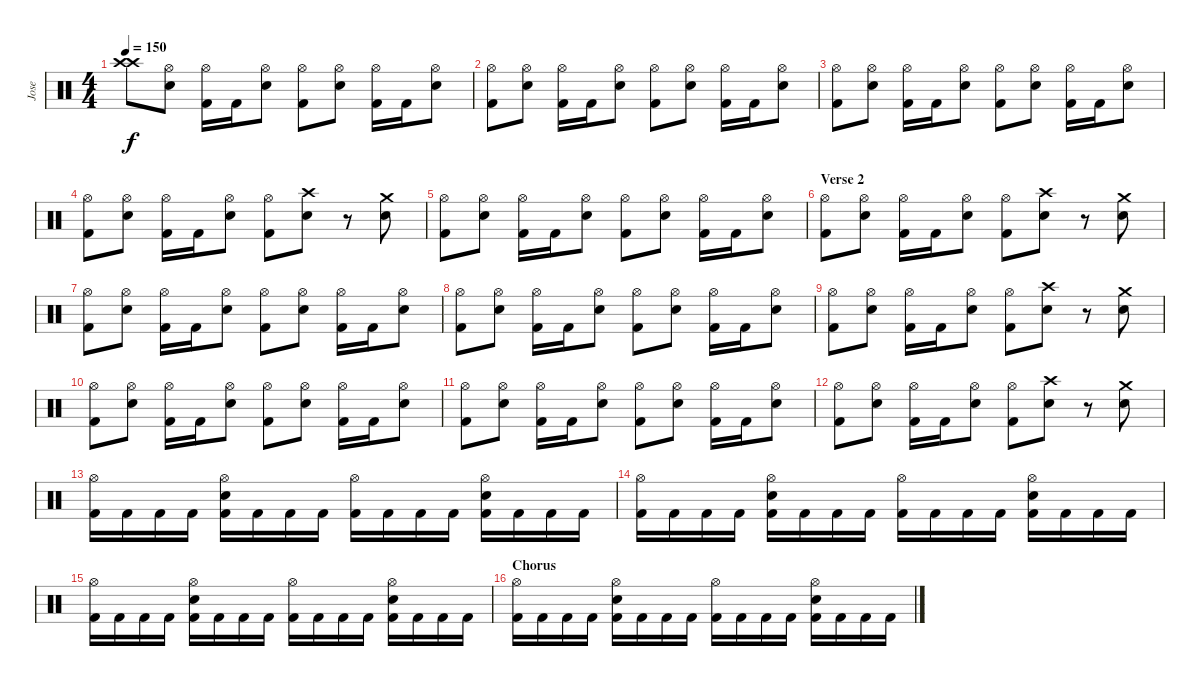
\track ("Jose" "Jose") {instrument percussion}
\staff {score}
\articulation defaults
\ts (4 4)
\tempo 150
\clef neutral
\ks c
("Crash high (hit)" "Crash high (hit)").8{dy f} ("Hi-Hat (open)" "Snare (hit) 2").8 ("Hi-Hat (open)" "Kick (hit) 2").16 "Kick (hit) 2".16 ("Hi-Hat (open)" "Snare (hit) 2").8 ("Hi-Hat (open)" "Kick (hit) 2").8 ("Hi-Hat (open)" "Snare (hit) 2").8 ("Hi-Hat (open)" "Kick (hit) 2").16 "Kick (hit) 2".16 ("Hi-Hat (open)" "Snare (hit) 2").8 |
("Hi-Hat (open)" "Kick (hit) 2").8 ("Hi-Hat (open)" "Snare (hit) 2").8 ("Hi-Hat (open)" "Kick (hit) 2").16 "Kick (hit) 2".16 ("Hi-Hat (open)" "Snare (hit) 2").8 ("Hi-Hat (open)" "Kick (hit) 2").8 ("Hi-Hat (open)" "Snare (hit) 2").8 ("Hi-Hat (open)" "Kick (hit) 2").16 "Kick (hit) 2".16 ("Hi-Hat (open)" "Snare (hit) 2").8 |
("Hi-Hat (open)" "Kick (hit) 2").8 ("Hi-Hat (open)" "Snare (hit) 2").8 ("Hi-Hat (open)" "Kick (hit) 2").16 "Kick (hit) 2".16 ("Hi-Hat (open)" "Snare (hit) 2").8 ("Hi-Hat (open)" "Kick (hit) 2").8 ("Hi-Hat (open)" "Snare (hit) 2").8 ("Hi-Hat (open)" "Kick (hit) 2").16 "Kick (hit) 2".16 ("Hi-Hat (open)" "Snare (hit) 2").8 |
("Hi-Hat (open)" "Kick (hit) 2").8 ("Hi-Hat (open)" "Snare (hit) 2").8 ("Hi-Hat (open)" "Kick (hit) 2").16 "Kick (hit) 2".16 ("Hi-Hat (open)" "Snare (hit) 2").8 ("Hi-Hat (open)" "Kick (hit) 2").8 ("Crash high (hit)" "Snare (hit) 2").8 r.8 ("Crash medium (hit)" "Snare (hit) 2").8 |
("Hi-Hat (open)" "Kick (hit) 2").8 ("Hi-Hat (open)" "Snare (hit) 2").8 ("Hi-Hat (open)" "Kick (hit) 2").16 "Kick (hit) 2".16 ("Hi-Hat (open)" "Snare (hit) 2").8 ("Hi-Hat (open)" "Kick (hit) 2").8 ("Hi-Hat (open)" "Snare (hit) 2").8 ("Hi-Hat (open)" "Kick (hit) 2").16 "Kick (hit) 2".16 ("Hi-Hat (open)" "Snare (hit) 2").8 |
\section ("" "Verse 2")
("Hi-Hat (open)" "Kick (hit) 2").8 ("Hi-Hat (open)" "Snare (hit) 2").8 ("Hi-Hat (open)" "Kick (hit) 2").16 "Kick (hit) 2".16 ("Hi-Hat (open)" "Snare (hit) 2").8 ("Hi-Hat (open)" "Kick (hit) 2").8 ("Crash high (hit)" "Snare (hit) 2").8 r.8 ("Crash medium (hit)" "Snare (hit) 2").8 |
("Hi-Hat (open)" "Kick (hit) 2").8 ("Hi-Hat (open)" "Snare (hit) 2").8 ("Hi-Hat (open)" "Kick (hit) 2").16 "Kick (hit) 2".16 ("Hi-Hat (open)" "Snare (hit) 2").8 ("Hi-Hat (open)" "Kick (hit) 2").8 ("Hi-Hat (open)" "Snare (hit) 2").8 ("Hi-Hat (open)" "Kick (hit) 2").16 "Kick (hit) 2".16 ("Hi-Hat (open)" "Snare (hit) 2").8 |
("Hi-Hat (open)" "Kick (hit) 2").8 ("Hi-Hat (open)" "Snare (hit) 2").8 ("Hi-Hat (open)" "Kick (hit) 2").16 "Kick (hit) 2".16 ("Hi-Hat (open)" "Snare (hit) 2").8 ("Hi-Hat (open)" "Kick (hit) 2").8 ("Hi-Hat (open)" "Snare (hit) 2").8 ("Hi-Hat (open)" "Kick (hit) 2").16 "Kick (hit) 2".16 ("Hi-Hat (open)" "Snare (hit) 2").8 |
("Hi-Hat (open)" "Kick (hit) 2").8 ("Hi-Hat (open)" "Snare (hit) 2").8 ("Hi-Hat (open)" "Kick (hit) 2").16 "Kick (hit) 2".16 ("Hi-Hat (open)" "Snare (hit) 2").8 ("Hi-Hat (open)" "Kick (hit) 2").8 ("Crash high (hit)" "Snare (hit) 2").8 r.8 ("Crash medium (hit)" "Snare (hit) 2").8 |
("Hi-Hat (open)" "Kick (hit) 2").8 ("Hi-Hat (open)" "Snare (hit) 2").8 ("Hi-Hat (open)" "Kick (hit) 2").16 "Kick (hit) 2".16 ("Hi-Hat (open)" "Snare (hit) 2").8 ("Hi-Hat (open)" "Kick (hit) 2").8 ("Hi-Hat (open)" "Snare (hit) 2").8 ("Hi-Hat (open)" "Kick (hit) 2").16 "Kick (hit) 2".16 ("Hi-Hat (open)" "Snare (hit) 2").8 |
("Hi-Hat (open)" "Kick (hit) 2").8 ("Hi-Hat (open)" "Snare (hit) 2").8 ("Hi-Hat (open)" "Kick (hit) 2").16 "Kick (hit) 2".16 ("Hi-Hat (open)" "Snare (hit) 2").8 ("Hi-Hat (open)" "Kick (hit) 2").8 ("Hi-Hat (open)" "Snare (hit) 2").8 ("Hi-Hat (open)" "Kick (hit) 2").16 "Kick (hit) 2".16 ("Hi-Hat (open)" "Snare (hit) 2").8 |
("Hi-Hat (open)" "Kick (hit) 2").8 ("Hi-Hat (open)" "Snare (hit) 2").8 ("Hi-Hat (open)" "Kick (hit) 2").16 "Kick (hit) 2".16 ("Hi-Hat (open)" "Snare (hit) 2").8 ("Hi-Hat (open)" "Kick (hit) 2").8 ("Crash high (hit)" "Snare (hit) 2").8 r.8 ("Crash medium (hit)" "Snare (hit) 2").8 |
("Hi-Hat (open)" "Kick (hit) 2").16 "Kick (hit) 2".16 "Kick (hit) 2".16 "Kick (hit) 2".16 ("Kick (hit) 2" "Snare (hit) 2" "Hi-Hat (open)").16 "Kick (hit) 2".16 "Kick (hit) 2".16 "Kick (hit) 2".16 ("Kick (hit) 2" "Hi-Hat (open)").16 "Kick (hit) 2".16 "Kick (hit) 2".16 "Kick (hit) 2".16 ("Kick (hit) 2" "Snare (hit) 2" "Hi-Hat (open)").16 "Kick (hit) 2".16 "Kick (hit) 2".16 "Kick (hit) 2".16 |
("Hi-Hat (open)" "Kick (hit) 2").16 "Kick (hit) 2".16 "Kick (hit) 2".16 "Kick (hit) 2".16 ("Kick (hit) 2" "Snare (hit) 2" "Hi-Hat (open)").16 "Kick (hit) 2".16 "Kick (hit) 2".16 "Kick (hit) 2".16 ("Kick (hit) 2" "Hi-Hat (open)").16 "Kick (hit) 2".16 "Kick (hit) 2".16 "Kick (hit) 2".16 ("Kick (hit) 2" "Snare (hit) 2" "Hi-Hat (open)").16 "Kick (hit) 2".16 "Kick (hit) 2".16 "Kick (hit) 2".16 |
("Hi-Hat (open)" "Kick (hit) 2").16 "Kick (hit) 2".16 "Kick (hit) 2".16 "Kick (hit) 2".16 ("Kick (hit) 2" "Snare (hit) 2" "Hi-Hat (open)").16 "Kick (hit) 2".16 "Kick (hit) 2".16 "Kick (hit) 2".16 ("Kick (hit) 2" "Hi-Hat (open)").16 "Kick (hit) 2".16 "Kick (hit) 2".16 "Kick (hit) 2".16 ("Kick (hit) 2" "Snare (hit) 2" "Hi-Hat (open)").16 "Kick (hit) 2".16 "Kick (hit) 2".16 "Kick (hit) 2".16 |
\section ("" "Chorus")
("Hi-Hat (open)" "Kick (hit) 2").16 "Kick (hit) 2".16 "Kick (hit) 2".16 "Kick (hit) 2".16 ("Kick (hit) 2" "Snare (hit) 2" "Hi-Hat (open)").16 "Kick (hit) 2".16 "Kick (hit) 2".16 "Kick (hit) 2".16 ("Kick (hit) 2" "Hi-Hat (open)").16 "Kick (hit) 2".16 "Kick (hit) 2".16 "Kick (hit) 2".16 ("Kick (hit) 2" "Snare (hit) 2" "Hi-Hat (open)").16 "Kick (hit) 2".16 "Kick (hit) 2".16 "Kick (hit) 2".16
